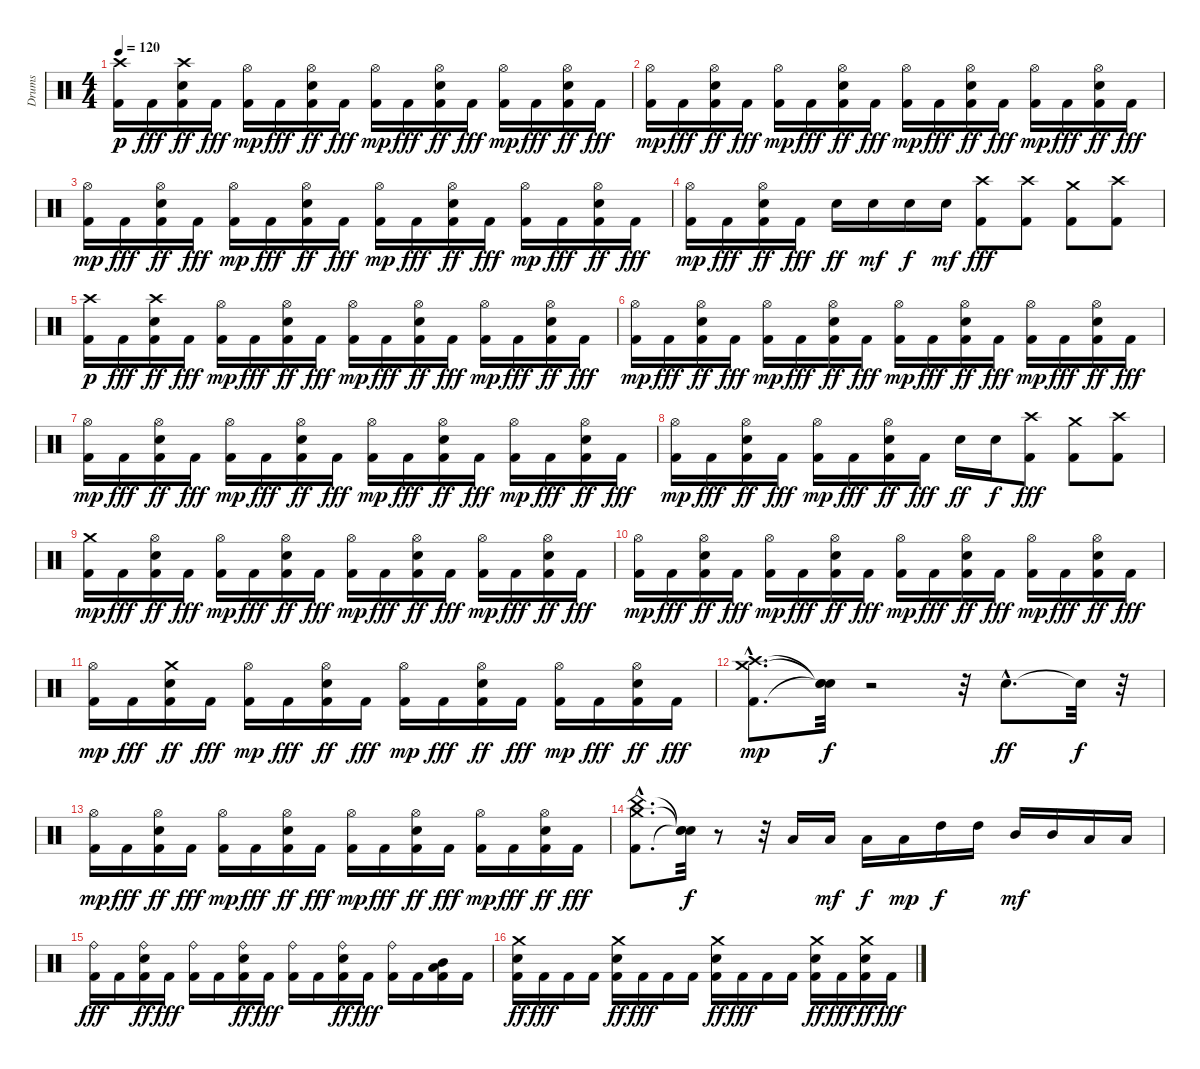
\track ("Drums" "Drums") {instrument percussion}
\staff {score}
\articulation defaults
\ts (4 4)
\tempo 120
\clef neutral
\ks c
("Kick (hit) 2" "Crash high (hit)").16{dy p} "Kick (hit) 2".16{dy fff} ("Kick (hit) 2" "Crash high (hit)" "Snare (hit) 2").16{dy ff} "Kick (hit) 2".16{dy fff} ("Kick (hit) 2" "Hi-Hat (open)").16{dy mp} "Kick (hit) 2".16{dy fff} ("Kick (hit) 2" "Hi-Hat (open)" "Snare (hit) 2").16{dy ff} "Kick (hit) 2".16{dy fff} ("Kick (hit) 2" "Hi-Hat (open)").16{dy mp} "Kick (hit) 2".16{dy fff} ("Kick (hit) 2" "Hi-Hat (open)" "Snare (hit) 2").16{dy ff} "Kick (hit) 2".16{dy fff} ("Kick (hit) 2" "Hi-Hat (open)").16{dy mp} "Kick (hit) 2".16{dy fff} ("Kick (hit) 2" "Hi-Hat (open)" "Snare (hit) 2").16{dy ff} "Kick (hit) 2".16{dy fff} |
("Kick (hit) 2" "Hi-Hat (open)").16{dy mp} "Kick (hit) 2".16{dy fff} ("Kick (hit) 2" "Hi-Hat (open)" "Snare (hit) 2").16{dy ff} "Kick (hit) 2".16{dy fff} ("Kick (hit) 2" "Hi-Hat (open)").16{dy mp} "Kick (hit) 2".16{dy fff} ("Kick (hit) 2" "Hi-Hat (open)" "Snare (hit) 2").16{dy ff} "Kick (hit) 2".16{dy fff} ("Kick (hit) 2" "Hi-Hat (open)").16{dy mp} "Kick (hit) 2".16{dy fff} ("Kick (hit) 2" "Hi-Hat (open)" "Snare (hit) 2").16{dy ff} "Kick (hit) 2".16{dy fff} ("Kick (hit) 2" "Hi-Hat (open)").16{dy mp} "Kick (hit) 2".16{dy fff} ("Kick (hit) 2" "Hi-Hat (open)" "Snare (hit) 2").16{dy ff} "Kick (hit) 2".16{dy fff} |
("Kick (hit) 2" "Hi-Hat (open)").16{dy mp} "Kick (hit) 2".16{dy fff} ("Kick (hit) 2" "Hi-Hat (open)" "Snare (hit) 2").16{dy ff} "Kick (hit) 2".16{dy fff} ("Kick (hit) 2" "Hi-Hat (open)").16{dy mp} "Kick (hit) 2".16{dy fff} ("Kick (hit) 2" "Hi-Hat (open)" "Snare (hit) 2").16{dy ff} "Kick (hit) 2".16{dy fff} ("Kick (hit) 2" "Hi-Hat (open)").16{dy mp} "Kick (hit) 2".16{dy fff} ("Kick (hit) 2" "Hi-Hat (open)" "Snare (hit) 2").16{dy ff} "Kick (hit) 2".16{dy fff} ("Kick (hit) 2" "Hi-Hat (open)").16{dy mp} "Kick (hit) 2".16{dy fff} ("Kick (hit) 2" "Hi-Hat (open)" "Snare (hit) 2").16{dy ff} "Kick (hit) 2".16{dy fff} |
("Kick (hit) 2" "Hi-Hat (open)").16{dy mp} "Kick (hit) 2".16{dy fff} ("Kick (hit) 2" "Hi-Hat (open)" "Snare (hit) 2").16{dy ff} "Kick (hit) 2".16{dy fff} "Snare (hit) 2".16{dy ff} "Snare (hit) 2".16{dy mf} "Snare (hit) 2".16{dy f} "Snare (hit) 2".16{dy mf} ("Crash high (hit)" "Kick (hit) 2").8{dy fff} ("Crash high (hit)" "Kick (hit) 2").8 ("Crash medium (hit)" "Kick (hit) 2").8 ("Crash high (hit)" "Kick (hit) 2").8 |
("Kick (hit) 2" "Crash high (hit)").16{dy p} "Kick (hit) 2".16{dy fff} ("Kick (hit) 2" "Crash high (hit)" "Snare (hit) 2").16{dy ff} "Kick (hit) 2".16{dy fff} ("Kick (hit) 2" "Hi-Hat (open)").16{dy mp} "Kick (hit) 2".16{dy fff} ("Kick (hit) 2" "Hi-Hat (open)" "Snare (hit) 2").16{dy ff} "Kick (hit) 2".16{dy fff} ("Kick (hit) 2" "Hi-Hat (open)").16{dy mp} "Kick (hit) 2".16{dy fff} ("Kick (hit) 2" "Hi-Hat (open)" "Snare (hit) 2").16{dy ff} "Kick (hit) 2".16{dy fff} ("Kick (hit) 2" "Hi-Hat (open)").16{dy mp} "Kick (hit) 2".16{dy fff} ("Kick (hit) 2" "Hi-Hat (open)" "Snare (hit) 2").16{dy ff} "Kick (hit) 2".16{dy fff} |
("Kick (hit) 2" "Hi-Hat (open)").16{dy mp} "Kick (hit) 2".16{dy fff} ("Kick (hit) 2" "Hi-Hat (open)" "Snare (hit) 2").16{dy ff} "Kick (hit) 2".16{dy fff} ("Kick (hit) 2" "Hi-Hat (open)").16{dy mp} "Kick (hit) 2".16{dy fff} ("Kick (hit) 2" "Hi-Hat (open)" "Snare (hit) 2").16{dy ff} "Kick (hit) 2".16{dy fff} ("Kick (hit) 2" "Hi-Hat (open)").16{dy mp} "Kick (hit) 2".16{dy fff} ("Kick (hit) 2" "Hi-Hat (open)" "Snare (hit) 2").16{dy ff} "Kick (hit) 2".16{dy fff} ("Kick (hit) 2" "Hi-Hat (open)").16{dy mp} "Kick (hit) 2".16{dy fff} ("Kick (hit) 2" "Hi-Hat (open)" "Snare (hit) 2").16{dy ff} "Kick (hit) 2".16{dy fff} |
("Kick (hit) 2" "Hi-Hat (open)").16{dy mp} "Kick (hit) 2".16{dy fff} ("Kick (hit) 2" "Hi-Hat (open)" "Snare (hit) 2").16{dy ff} "Kick (hit) 2".16{dy fff} ("Kick (hit) 2" "Hi-Hat (open)").16{dy mp} "Kick (hit) 2".16{dy fff} ("Kick (hit) 2" "Hi-Hat (open)" "Snare (hit) 2").16{dy ff} "Kick (hit) 2".16{dy fff} ("Kick (hit) 2" "Hi-Hat (open)").16{dy mp} "Kick (hit) 2".16{dy fff} ("Kick (hit) 2" "Hi-Hat (open)" "Snare (hit) 2").16{dy ff} "Kick (hit) 2".16{dy fff} ("Kick (hit) 2" "Hi-Hat (open)").16{dy mp} "Kick (hit) 2".16{dy fff} ("Kick (hit) 2" "Hi-Hat (open)" "Snare (hit) 2").16{dy ff} "Kick (hit) 2".16{dy fff} |
("Kick (hit) 2" "Hi-Hat (open)").16{dy mp} "Kick (hit) 2".16{dy fff} ("Kick (hit) 2" "Hi-Hat (open)" "Snare (hit) 2").16{dy ff} "Kick (hit) 2".16{dy fff} ("Kick (hit) 2" "Hi-Hat (open)").16{dy mp} "Kick (hit) 2".16{dy fff} ("Kick (hit) 2" "Hi-Hat (open)" "Snare (hit) 2").16{dy ff} "Kick (hit) 2".16{dy fff} "Snare (hit) 2".16{dy ff} "Snare (hit) 2".16{dy f} ("Crash high (hit)" "Kick (hit) 2").8{dy fff} ("Crash medium (hit)" "Kick (hit) 2").8 ("Crash high (hit)" "Kick (hit) 2").8 |
("Kick (hit) 2" "Crash medium (hit)").16{dy mp} "Kick (hit) 2".16{dy fff} ("Kick (hit) 2" "Hi-Hat (open)" "Snare (hit) 2").16{dy ff} "Kick (hit) 2".16{dy fff} ("Kick (hit) 2" "Hi-Hat (open)").16{dy mp} "Kick (hit) 2".16{dy fff} ("Kick (hit) 2" "Hi-Hat (open)" "Snare (hit) 2").16{dy ff} "Kick (hit) 2".16{dy fff} ("Kick (hit) 2" "Hi-Hat (open)").16{dy mp} "Kick (hit) 2".16{dy fff} ("Kick (hit) 2" "Hi-Hat (open)" "Snare (hit) 2").16{dy ff} "Kick (hit) 2".16{dy fff} ("Kick (hit) 2" "Hi-Hat (open)").16{dy mp} "Kick (hit) 2".16{dy fff} ("Kick (hit) 2" "Hi-Hat (open)" "Snare (hit) 2").16{dy ff} "Kick (hit) 2".16{dy fff} |
("Kick (hit) 2" "Hi-Hat (open)").16{dy mp} "Kick (hit) 2".16{dy fff} ("Kick (hit) 2" "Hi-Hat (open)" "Snare (hit) 2").16{dy ff} "Kick (hit) 2".16{dy fff} ("Kick (hit) 2" "Hi-Hat (open)").16{dy mp} "Kick (hit) 2".16{dy fff} ("Kick (hit) 2" "Hi-Hat (open)" "Snare (hit) 2").16{dy ff} "Kick (hit) 2".16{dy fff} ("Kick (hit) 2" "Hi-Hat (open)").16{dy mp} "Kick (hit) 2".16{dy fff} ("Kick (hit) 2" "Hi-Hat (open)" "Snare (hit) 2").16{dy ff} "Kick (hit) 2".16{dy fff} ("Kick (hit) 2" "Hi-Hat (open)").16{dy mp} "Kick (hit) 2".16{dy fff} ("Kick (hit) 2" "Hi-Hat (open)" "Snare (hit) 2").16{dy ff} "Kick (hit) 2".16{dy fff} |
("Kick (hit) 2" "Hi-Hat (open)").16{dy mp} "Kick (hit) 2".16{dy fff} ("Kick (hit) 2" "Crash medium (hit)" "Snare (hit) 2").16{dy ff} "Kick (hit) 2".16{dy fff} ("Kick (hit) 2" "Hi-Hat (open)").16{dy mp} "Kick (hit) 2".16{dy fff} ("Kick (hit) 2" "Hi-Hat (open)" "Snare (hit) 2").16{dy ff} "Kick (hit) 2".16{dy fff} ("Kick (hit) 2" "Hi-Hat (open)").16{dy mp} "Kick (hit) 2".16{dy fff} ("Kick (hit) 2" "Hi-Hat (open)" "Snare (hit) 2").16{dy ff} "Kick (hit) 2".16{dy fff} ("Kick (hit) 2" "Hi-Hat (open)").16{dy mp} "Kick (hit) 2".16{dy fff} ("Kick (hit) 2" "Hi-Hat (open)" "Snare (hit) 2").16{dy ff} "Kick (hit) 2".16{dy fff} |
("Kick (hit) 2"{hac} "Crash high (hit)"{hac} "Crash medium (hit)"{hac}).8{d dy mp} ("Snare (hit)"{t} "Snare (hit)"{t} "Snare (hit)"{t}).32{dy f} r.2 r.32 "Snare (hit) 2"{hac}.8{d dy ff} "Snare (hit)"{t}.32{dy f} r.32 |
("Kick (hit) 2" "Hi-Hat (open)").16{dy mp} "Kick (hit) 2".16{dy fff} ("Kick (hit) 2" "Hi-Hat (open)" "Snare (hit) 2").16{dy ff} "Kick (hit) 2".16{dy fff} ("Kick (hit) 2" "Hi-Hat (open)").16{dy mp} "Kick (hit) 2".16{dy fff} ("Kick (hit) 2" "Hi-Hat (open)" "Snare (hit) 2").16{dy ff} "Kick (hit) 2".16{dy fff} ("Kick (hit) 2" "Hi-Hat (open)").16{dy mp} "Kick (hit) 2".16{dy fff} ("Kick (hit) 2" "Hi-Hat (open)" "Snare (hit) 2").16{dy ff} "Kick (hit) 2".16{dy fff} ("Kick (hit) 2" "Hi-Hat (open)").16{dy mp} "Kick (hit) 2".16{dy fff} ("Kick (hit) 2" "Hi-Hat (open)" "Snare (hit) 2").16{dy ff} "Kick (hit) 2".16{dy fff} |
("Kick (hit) 2"{hac} "China (hit)"{hac} "Crash medium (hit)"{hac}).8{d} ("Snare (hit)"{t} "Snare (hit)"{t} "Snare (hit)"{t}).32{dy f} r.8 r.32 "Low Tom (hit)".16 "Low Tom (hit)".16{dy mf} "Low Tom (hit)".16{dy f} "Low Tom (hit)".16{dy mp} "High Tom (hit)".16{dy f} "High Tom (hit)".16 "Mid Tom (hit)".16{dy mf} "Mid Tom (hit)".16 "Low Tom (hit)".16 "Low Tom (hit)".16 |
("Ride (bell)" "Kick (hit) 2").16{dy fff} "Kick (hit) 2".16 ("Ride (bell)" "Kick (hit) 2" "Snare (hit) 2").16{dy ff} "Kick (hit) 2".16{dy fff} ("Ride (bell)" "Kick (hit) 2").16 "Kick (hit) 2".16 ("Ride (bell)" "Kick (hit) 2" "Snare (hit) 2").16{dy ff} "Kick (hit) 2".16{dy fff} ("Ride (bell)" "Kick (hit) 2").16 "Kick (hit) 2".16 ("Ride (bell)" "Kick (hit) 2" "Snare (hit) 2").16{dy ff} "Kick (hit) 2".16{dy fff} ("Ride (bell)" "Kick (hit) 2").16 "Kick (hit) 2".16 ("Kick (hit) 2" "Low Tom (hit)" "Mid Tom (hit)").16 "Kick (hit) 2".16 |
("Crash medium (hit)" "Kick (hit) 2" "Snare (hit) 2").16{dy ff} "Kick (hit) 2".16{dy fff} "Kick (hit) 2".16 "Kick (hit) 2".16 ("Crash medium (hit)" "Kick (hit) 2" "Snare (hit) 2").16{dy ff} "Kick (hit) 2".16{dy fff} "Kick (hit) 2".16 "Kick (hit) 2".16 ("Crash medium (hit)" "Kick (hit) 2" "Snare (hit) 2").16{dy ff} "Kick (hit) 2".16{dy fff} "Kick (hit) 2".16 "Kick (hit) 2".16 ("Crash medium (hit)" "Kick (hit) 2" "Snare (hit) 2").16{dy ff} "Kick (hit) 2".16{dy fff} ("Crash medium (hit)" "Kick (hit) 2" "Snare (hit) 2").16{dy ff} "Kick (hit) 2".16{dy fff}
